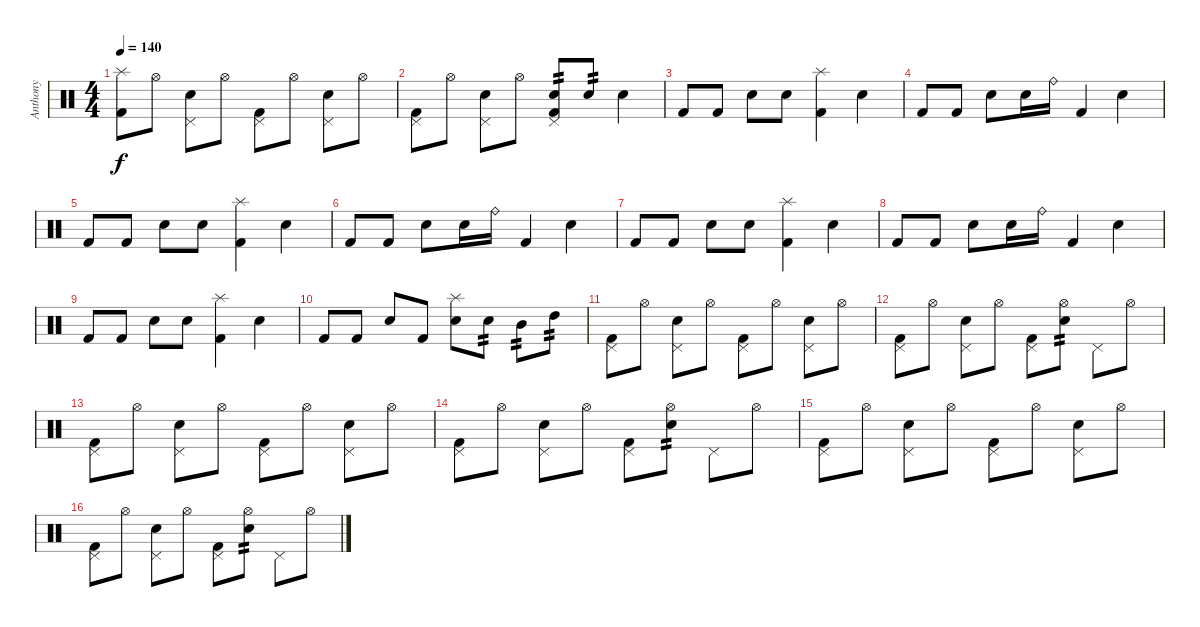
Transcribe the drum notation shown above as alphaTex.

\track ("Anthony" "Anthony") {instrument percussion}
\staff {score}
\articulation defaults
\ts (4 4)
\tempo 140
\clef neutral
\ks c
("Splash (hit)" "Kick (hit) 2").8{dy f} "Hi-Hat (open)".8 ("Pedal Hi-Hat (hit)" "Snare (hit) 2").8 "Hi-Hat (open)".8 ("Pedal Hi-Hat (hit)" "Kick (hit) 2").8 "Hi-Hat (open)".8 ("Pedal Hi-Hat (hit)" "Snare (hit) 2").8 "Hi-Hat (open)".8 |
("Pedal Hi-Hat (hit)" "Kick (hit) 2").8 "Hi-Hat (open)".8 ("Pedal Hi-Hat (hit)" "Snare (hit) 2").8 "Hi-Hat (open)".8 ("Pedal Hi-Hat (hit)" "Snare (hit) 2" "Kick (hit) 2").8{tp 2} "Snare (hit) 2".8{tp 2} "Snare (hit) 2".4 |
"Kick (hit) 2".8 "Kick (hit) 2".8 "Snare (hit) 2".8 "Snare (hit) 2".8 ("Splash (hit)" "Kick (hit) 2").4 "Snare (hit) 2".4 |
"Kick (hit) 2".8 "Kick (hit) 2".8 "Snare (hit) 2".8 "Snare (hit) 2".16 "Ride (bell)".16 "Kick (hit) 2".4 "Snare (hit) 2".4 |
"Kick (hit) 2".8 "Kick (hit) 2".8 "Snare (hit) 2".8 "Snare (hit) 2".8 ("Splash (hit)" "Kick (hit) 2").4 "Snare (hit) 2".4 |
"Kick (hit) 2".8 "Kick (hit) 2".8 "Snare (hit) 2".8 "Snare (hit) 2".16 "Ride (bell)".16 "Kick (hit) 2".4 "Snare (hit) 2".4 |
"Kick (hit) 2".8 "Kick (hit) 2".8 "Snare (hit) 2".8 "Snare (hit) 2".8 ("Splash (hit)" "Kick (hit) 2").4 "Snare (hit) 2".4 |
"Kick (hit) 2".8 "Kick (hit) 2".8 "Snare (hit) 2".8 "Snare (hit) 2".16 "Ride (bell)".16 "Kick (hit) 2".4 "Snare (hit) 2".4 |
"Kick (hit) 2".8 "Kick (hit) 2".8 "Snare (hit) 2".8 "Snare (hit) 2".8 ("Splash (hit)" "Kick (hit) 2").4 "Snare (hit) 2".4 |
"Kick (hit) 2".8 "Kick (hit) 2".8 "Snare (hit) 2".8 "Kick (hit) 2".8 ("Splash (hit)" "Snare (hit) 2").8 "Snare (hit) 2".8{tp 2} "Mid Tom (hit)".8{tp 2} "High Tom (hit)".8{tp 2} |
("Pedal Hi-Hat (hit)" "Kick (hit) 2").8 "Hi-Hat (open)".8 ("Pedal Hi-Hat (hit)" "Snare (hit) 2").8 "Hi-Hat (open)".8 ("Pedal Hi-Hat (hit)" "Kick (hit) 2").8 "Hi-Hat (open)".8 ("Pedal Hi-Hat (hit)" "Snare (hit) 2").8 "Hi-Hat (open)".8 |
("Pedal Hi-Hat (hit)" "Kick (hit) 2").8 "Hi-Hat (open)".8 ("Pedal Hi-Hat (hit)" "Snare (hit) 2").8 "Hi-Hat (open)".8 ("Pedal Hi-Hat (hit)" "Kick (hit) 2").8 ("Hi-Hat (open)" "Snare (hit) 2").8{tp 2} "Pedal Hi-Hat (hit)".8 "Hi-Hat (open)".8 |
("Pedal Hi-Hat (hit)" "Kick (hit) 2").8 "Hi-Hat (open)".8 ("Pedal Hi-Hat (hit)" "Snare (hit) 2").8 "Hi-Hat (open)".8 ("Pedal Hi-Hat (hit)" "Kick (hit) 2").8 "Hi-Hat (open)".8 ("Pedal Hi-Hat (hit)" "Snare (hit) 2").8 "Hi-Hat (open)".8 |
("Pedal Hi-Hat (hit)" "Kick (hit) 2").8 "Hi-Hat (open)".8 ("Pedal Hi-Hat (hit)" "Snare (hit) 2").8 "Hi-Hat (open)".8 ("Pedal Hi-Hat (hit)" "Kick (hit) 2").8 ("Hi-Hat (open)" "Snare (hit) 2").8{tp 2} "Pedal Hi-Hat (hit)".8 "Hi-Hat (open)".8 |
("Pedal Hi-Hat (hit)" "Kick (hit) 2").8 "Hi-Hat (open)".8 ("Pedal Hi-Hat (hit)" "Snare (hit) 2").8 "Hi-Hat (open)".8 ("Pedal Hi-Hat (hit)" "Kick (hit) 2").8 "Hi-Hat (open)".8 ("Pedal Hi-Hat (hit)" "Snare (hit) 2").8 "Hi-Hat (open)".8 |
("Pedal Hi-Hat (hit)" "Kick (hit) 2").8 "Hi-Hat (open)".8 ("Pedal Hi-Hat (hit)" "Snare (hit) 2").8 "Hi-Hat (open)".8 ("Pedal Hi-Hat (hit)" "Kick (hit) 2").8 ("Hi-Hat (open)" "Snare (hit) 2").8{tp 2} "Pedal Hi-Hat (hit)".8 "Hi-Hat (open)".8
